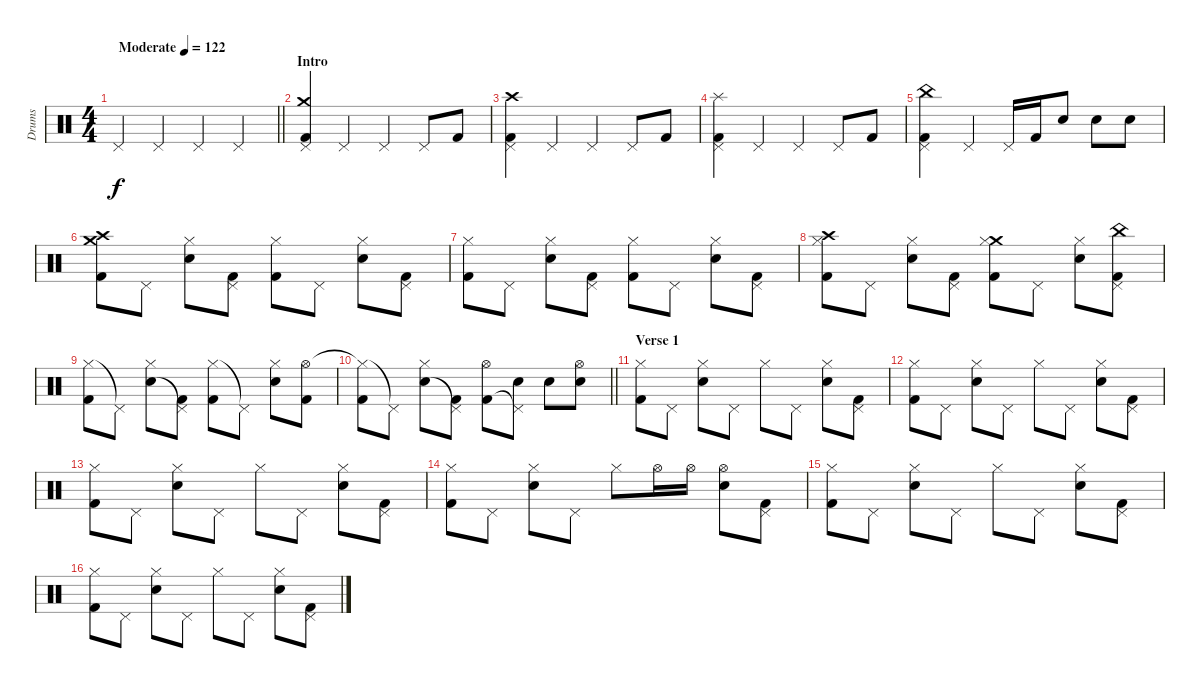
\track ("Drums" "Drums") {instrument percussion}
\staff {score}
\articulation defaults
\ts (4 4)
\tempo (122 "Moderate")
\clef neutral
\barLineRight lightlight
\ks c "Pedal Hi-Hat (hit)".4{dy f} "Pedal Hi-Hat (hit)".4 "Pedal Hi-Hat (hit)".4 "Pedal Hi-Hat (hit)".4
|
\section ("" "Intro")
("Crash medium (hit)" "Pedal Hi-Hat (hit)" "Kick (hit) 2").4 "Pedal Hi-Hat (hit)".4 "Pedal Hi-Hat (hit)".4 "Pedal Hi-Hat (hit)".8 "Kick (hit) 2".8 |
("Crash high (hit)" "Pedal Hi-Hat (hit)" "Kick (hit) 2").4 "Pedal Hi-Hat (hit)".4 "Pedal Hi-Hat (hit)".4 "Pedal Hi-Hat (hit)".8 "Kick (hit) 2".8 |
("Splash (hit)" "Pedal Hi-Hat (hit)" "Kick (hit) 2").4 "Pedal Hi-Hat (hit)".4 "Pedal Hi-Hat (hit)".4 "Pedal Hi-Hat (hit)".8 "Kick (hit) 2".8 |
("China (hit)" "Pedal Hi-Hat (hit)" "Kick (hit) 2").4 "Pedal Hi-Hat (hit)".4 "Pedal Hi-Hat (hit)".16 "Kick (hit) 2".16 "Snare (hit) 2".8 "Snare (hit) 2".8 "Snare (hit) 2".8 |
("Crash medium (hit)" "Crash high (hit)" "Kick (hit) 2").8 "Pedal Hi-Hat (hit)".8 ("Snare (hit) 2" "Hi-Hat (closed)").8 ("Pedal Hi-Hat (hit)" "Kick (hit) 2").8 ("Hi-Hat (closed)" "Kick (hit) 2").8 "Pedal Hi-Hat (hit)".8 ("Snare (hit) 2" "Hi-Hat (closed)").8 ("Pedal Hi-Hat (hit)" "Kick (hit) 2").8 |
("Hi-Hat (closed)" "Kick (hit) 2").8 "Pedal Hi-Hat (hit)".8 ("Snare (hit) 2" "Hi-Hat (closed)").8 ("Pedal Hi-Hat (hit)" "Kick (hit) 2").8 ("Hi-Hat (closed)" "Kick (hit) 2").8 "Pedal Hi-Hat (hit)".8 ("Snare (hit) 2" "Hi-Hat (closed)").8 ("Pedal Hi-Hat (hit)" "Kick (hit) 2").8 |
("Crash high (hit)" "Hi-Hat (closed)" "Kick (hit) 2").8 "Pedal Hi-Hat (hit)".8 ("Snare (hit) 2" "Hi-Hat (closed)").8 ("Pedal Hi-Hat (hit)" "Kick (hit) 2").8 ("Crash medium (hit)" "Hi-Hat (closed)" "Kick (hit) 2").8 "Pedal Hi-Hat (hit)".8 ("Snare (hit) 2" "Hi-Hat (closed)").8 ("China (hit)" "Pedal Hi-Hat (hit)" "Kick (hit) 2").8 |
("Hi-Hat (closed)" "Kick (hit) 2").8 "Pedal Hi-Hat (hit)"{t}.8 ("Snare (hit) 2" "Hi-Hat (closed)").8 ("Pedal Hi-Hat (hit)"{t} "Kick (hit) 2").8 ("Hi-Hat (closed)" "Kick (hit) 2").8 "Pedal Hi-Hat (hit)"{t}.8 ("Snare (hit) 2" "Hi-Hat (closed)").8 ("Hi-Hat (open)" "Kick (hit) 2").8 |
\barLineRight lightlight
("Hi-Hat (closed)"{t} "Kick (hit) 2").8 "Pedal Hi-Hat (hit)"{t}.8 ("Snare (hit) 2" "Hi-Hat (closed)").8 ("Pedal Hi-Hat (hit)"{t} "Kick (hit) 2").8 ("Hi-Hat (open)" "Kick (hit) 2").8 ("Snare (hit) 2" "Pedal Hi-Hat (hit)"{t}).8 "Snare (hit) 2".8 ("Snare (hit) 2" "Hi-Hat (open)").8 |
\section ("" "Verse 1")
("Hi-Hat (closed)" "Kick (hit) 2").8 "Pedal Hi-Hat (hit)".8 ("Snare (hit) 2" "Hi-Hat (closed)").8 "Pedal Hi-Hat (hit)".8 "Hi-Hat (closed)".8 "Pedal Hi-Hat (hit)".8 ("Snare (hit) 2" "Hi-Hat (closed)").8 ("Pedal Hi-Hat (hit)" "Kick (hit) 2").8 |
("Hi-Hat (closed)" "Kick (hit) 2").8 "Pedal Hi-Hat (hit)".8 ("Snare (hit) 2" "Hi-Hat (closed)").8 "Pedal Hi-Hat (hit)".8 "Hi-Hat (closed)".8 "Pedal Hi-Hat (hit)".8 ("Snare (hit) 2" "Hi-Hat (closed)").8 ("Pedal Hi-Hat (hit)" "Kick (hit) 2").8 |
("Hi-Hat (closed)" "Kick (hit) 2").8 "Pedal Hi-Hat (hit)".8 ("Snare (hit) 2" "Hi-Hat (closed)").8 "Pedal Hi-Hat (hit)".8 "Hi-Hat (closed)".8 "Pedal Hi-Hat (hit)".8 ("Snare (hit) 2" "Hi-Hat (closed)").8 ("Pedal Hi-Hat (hit)" "Kick (hit) 2").8 |
("Hi-Hat (closed)" "Kick (hit) 2").8 "Pedal Hi-Hat (hit)".8 ("Snare (hit) 2" "Hi-Hat (closed)").8 "Pedal Hi-Hat (hit)".8 "Hi-Hat (closed)".8 "Hi-Hat (open)".16 "Hi-Hat (open)".16 ("Snare (hit) 2" "Hi-Hat (open)").8 ("Pedal Hi-Hat (hit)" "Kick (hit) 2").8 |
("Hi-Hat (closed)" "Kick (hit) 2").8 "Pedal Hi-Hat (hit)".8 ("Snare (hit) 2" "Hi-Hat (closed)").8 "Pedal Hi-Hat (hit)".8 "Hi-Hat (closed)".8 "Pedal Hi-Hat (hit)".8 ("Snare (hit) 2" "Hi-Hat (closed)").8 ("Pedal Hi-Hat (hit)" "Kick (hit) 2").8 |
("Hi-Hat (closed)" "Kick (hit) 2").8 "Pedal Hi-Hat (hit)".8 ("Snare (hit) 2" "Hi-Hat (closed)").8 "Pedal Hi-Hat (hit)".8 "Hi-Hat (closed)".8 "Pedal Hi-Hat (hit)".8 ("Snare (hit) 2" "Hi-Hat (closed)").8 ("Pedal Hi-Hat (hit)" "Kick (hit) 2").8
